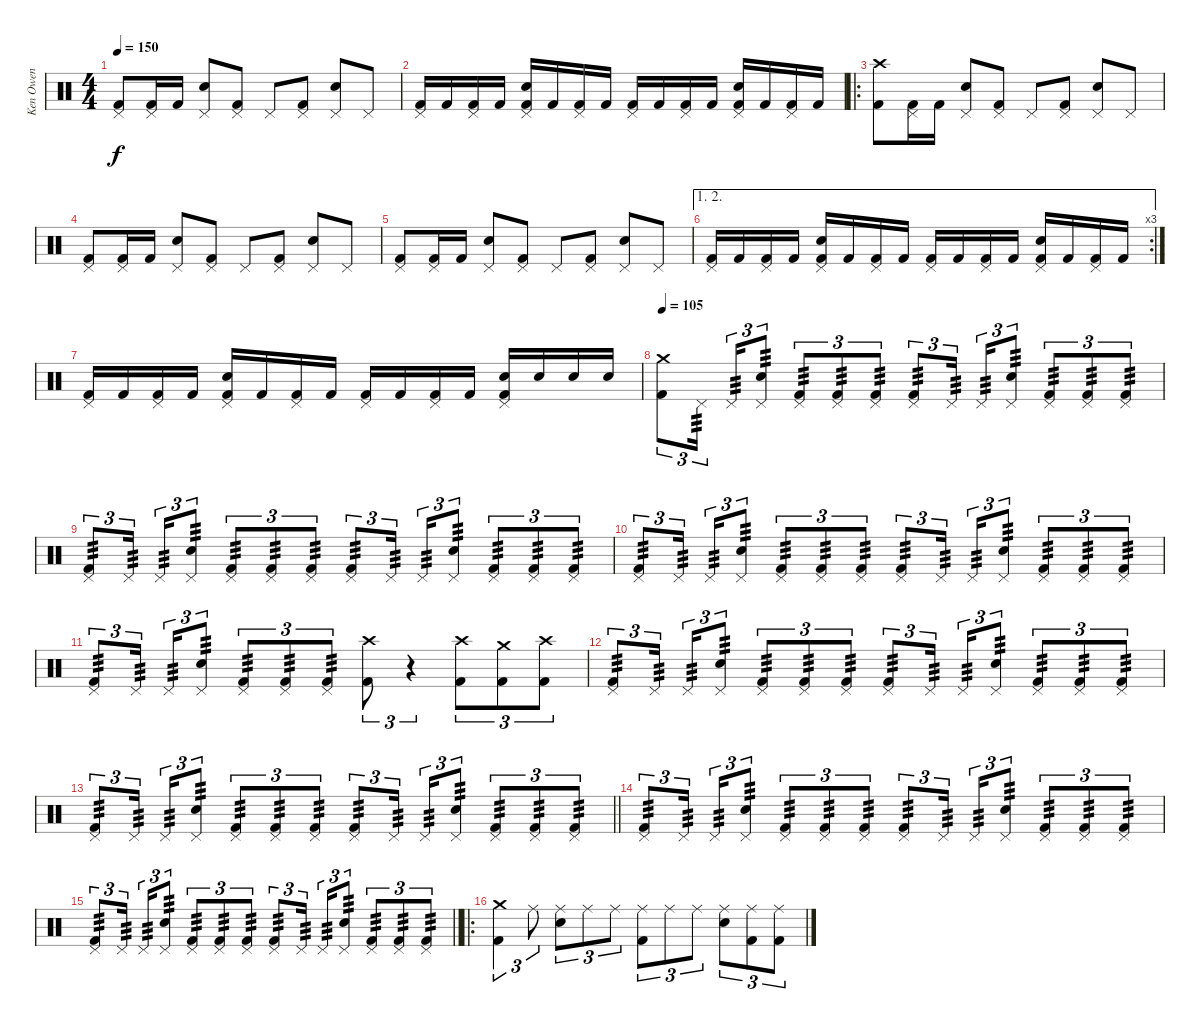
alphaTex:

\track ("Ken Owen" "Ken Owen") {instrument percussion}
\staff {score}
\articulation defaults
\ts (4 4)
\tempo 150
\clef neutral
\ks c
("Pedal Hi-Hat (hit)" "Kick (hit) 2").8{dy f} ("Pedal Hi-Hat (hit)" "Kick (hit) 2").16 "Kick (hit) 2".16 ("Pedal Hi-Hat (hit)" "Electric Snare (hit)").8 ("Pedal Hi-Hat (hit)" "Kick (hit) 2").8 "Pedal Hi-Hat (hit)".8 ("Pedal Hi-Hat (hit)" "Kick (hit) 2").8 ("Pedal Hi-Hat (hit)" "Electric Snare (hit)").8 "Pedal Hi-Hat (hit)".8 |
("Pedal Hi-Hat (hit)" "Kick (hit) 2").16 "Kick (hit) 2".16 ("Pedal Hi-Hat (hit)" "Kick (hit) 2").16 "Kick (hit) 2".16 ("Pedal Hi-Hat (hit)" "Electric Snare (hit)" "Kick (hit) 2").16 "Kick (hit) 2".16 ("Pedal Hi-Hat (hit)" "Kick (hit) 2").16 "Kick (hit) 2".16 ("Pedal Hi-Hat (hit)" "Kick (hit) 2").16 "Kick (hit) 2".16 ("Pedal Hi-Hat (hit)" "Kick (hit) 2").16 "Kick (hit) 2".16 ("Pedal Hi-Hat (hit)" "Electric Snare (hit)" "Kick (hit) 2").16 "Kick (hit) 2".16 ("Pedal Hi-Hat (hit)" "Kick (hit) 2").16 "Kick (hit) 2".16 |
\ro
("Crash high (hit)" "Kick (hit) 2").8 ("Pedal Hi-Hat (hit)" "Kick (hit) 2").16 "Kick (hit) 2".16 ("Pedal Hi-Hat (hit)" "Electric Snare (hit)").8 ("Pedal Hi-Hat (hit)" "Kick (hit) 2").8 "Pedal Hi-Hat (hit)".8 ("Pedal Hi-Hat (hit)" "Kick (hit) 2").8 ("Pedal Hi-Hat (hit)" "Electric Snare (hit)").8 "Pedal Hi-Hat (hit)".8 |
("Pedal Hi-Hat (hit)" "Kick (hit) 2").8 ("Pedal Hi-Hat (hit)" "Kick (hit) 2").16 "Kick (hit) 2".16 ("Pedal Hi-Hat (hit)" "Electric Snare (hit)").8 ("Pedal Hi-Hat (hit)" "Kick (hit) 2").8 "Pedal Hi-Hat (hit)".8 ("Pedal Hi-Hat (hit)" "Kick (hit) 2").8 ("Pedal Hi-Hat (hit)" "Electric Snare (hit)").8 "Pedal Hi-Hat (hit)".8 |
("Pedal Hi-Hat (hit)" "Kick (hit) 2").8 ("Pedal Hi-Hat (hit)" "Kick (hit) 2").16 "Kick (hit) 2".16 ("Pedal Hi-Hat (hit)" "Electric Snare (hit)").8 ("Pedal Hi-Hat (hit)" "Kick (hit) 2").8 "Pedal Hi-Hat (hit)".8 ("Pedal Hi-Hat (hit)" "Kick (hit) 2").8 ("Pedal Hi-Hat (hit)" "Electric Snare (hit)").8 "Pedal Hi-Hat (hit)".8 |
\ae (1 2)
\rc 3
("Pedal Hi-Hat (hit)" "Kick (hit) 2").16 "Kick (hit) 2".16 ("Pedal Hi-Hat (hit)" "Kick (hit) 2").16 "Kick (hit) 2".16 ("Pedal Hi-Hat (hit)" "Electric Snare (hit)" "Kick (hit) 2").16 "Kick (hit) 2".16 ("Pedal Hi-Hat (hit)" "Kick (hit) 2").16 "Kick (hit) 2".16 ("Pedal Hi-Hat (hit)" "Kick (hit) 2").16 "Kick (hit) 2".16 ("Pedal Hi-Hat (hit)" "Kick (hit) 2").16 "Kick (hit) 2".16 ("Pedal Hi-Hat (hit)" "Electric Snare (hit)" "Kick (hit) 2").16 "Kick (hit) 2".16 ("Pedal Hi-Hat (hit)" "Kick (hit) 2").16 "Kick (hit) 2".16 |
("Pedal Hi-Hat (hit)" "Kick (hit) 2").16 "Kick (hit) 2".16 ("Pedal Hi-Hat (hit)" "Kick (hit) 2").16 "Kick (hit) 2".16 ("Pedal Hi-Hat (hit)" "Electric Snare (hit)" "Kick (hit) 2").16 "Kick (hit) 2".16 ("Pedal Hi-Hat (hit)" "Kick (hit) 2").16 "Kick (hit) 2".16 ("Pedal Hi-Hat (hit)" "Kick (hit) 2").16 "Kick (hit) 2".16 ("Pedal Hi-Hat (hit)" "Kick (hit) 2").16 "Kick (hit) 2".16 ("Pedal Hi-Hat (hit)" "Electric Snare (hit)" "Kick (hit) 2").16 "Electric Snare (hit)".16 "Electric Snare (hit)".16 "Electric Snare (hit)".16 |
\tempo 105
("Crash medium (hit)" "Kick (hit) 2").8{tu (3 2)} "Pedal Hi-Hat (hit)".16{tu (3 2) tp 3 beam splitsecondary} "Pedal Hi-Hat (hit)".16{tu (3 2) tp 3} ("Pedal Hi-Hat (hit)" "Electric Snare (hit)").8{tu (3 2) tp 3} ("Pedal Hi-Hat (hit)" "Kick (hit) 2").8{tu (3 2) tp 3} ("Pedal Hi-Hat (hit)" "Kick (hit) 2").8{tu (3 2) tp 3} ("Pedal Hi-Hat (hit)" "Kick (hit) 2").8{tu (3 2) tp 3} ("Pedal Hi-Hat (hit)" "Kick (hit) 2").8{tu (3 2) tp 3} "Pedal Hi-Hat (hit)".16{tu (3 2) tp 3 beam splitsecondary} "Pedal Hi-Hat (hit)".16{tu (3 2) tp 3} ("Pedal Hi-Hat (hit)" "Electric Snare (hit)").8{tu (3 2) tp 3} ("Pedal Hi-Hat (hit)" "Kick (hit) 2").8{tu (3 2) tp 3} ("Pedal Hi-Hat (hit)" "Kick (hit) 2").8{tu (3 2) tp 3} ("Pedal Hi-Hat (hit)" "Kick (hit) 2").8{tu (3 2) tp 3} |
("Pedal Hi-Hat (hit)" "Kick (hit) 2").8{tu (3 2) tp 3} "Pedal Hi-Hat (hit)".16{tu (3 2) tp 3 beam splitsecondary} "Pedal Hi-Hat (hit)".16{tu (3 2) tp 3} ("Pedal Hi-Hat (hit)" "Electric Snare (hit)").8{tu (3 2) tp 3} ("Pedal Hi-Hat (hit)" "Kick (hit) 2").8{tu (3 2) tp 3} ("Pedal Hi-Hat (hit)" "Kick (hit) 2").8{tu (3 2) tp 3} ("Pedal Hi-Hat (hit)" "Kick (hit) 2").8{tu (3 2) tp 3} ("Pedal Hi-Hat (hit)" "Kick (hit) 2").8{tu (3 2) tp 3} "Pedal Hi-Hat (hit)".16{tu (3 2) tp 3 beam splitsecondary} "Pedal Hi-Hat (hit)".16{tu (3 2) tp 3} ("Pedal Hi-Hat (hit)" "Electric Snare (hit)").8{tu (3 2) tp 3} ("Pedal Hi-Hat (hit)" "Kick (hit) 2").8{tu (3 2) tp 3} ("Pedal Hi-Hat (hit)" "Kick (hit) 2").8{tu (3 2) tp 3} ("Pedal Hi-Hat (hit)" "Kick (hit) 2").8{tu (3 2) tp 3} |
("Pedal Hi-Hat (hit)" "Kick (hit) 2").8{tu (3 2) tp 3} "Pedal Hi-Hat (hit)".16{tu (3 2) tp 3 beam splitsecondary} "Pedal Hi-Hat (hit)".16{tu (3 2) tp 3} ("Pedal Hi-Hat (hit)" "Electric Snare (hit)").8{tu (3 2) tp 3} ("Pedal Hi-Hat (hit)" "Kick (hit) 2").8{tu (3 2) tp 3} ("Pedal Hi-Hat (hit)" "Kick (hit) 2").8{tu (3 2) tp 3} ("Pedal Hi-Hat (hit)" "Kick (hit) 2").8{tu (3 2) tp 3} ("Pedal Hi-Hat (hit)" "Kick (hit) 2").8{tu (3 2) tp 3} "Pedal Hi-Hat (hit)".16{tu (3 2) tp 3 beam splitsecondary} "Pedal Hi-Hat (hit)".16{tu (3 2) tp 3} ("Pedal Hi-Hat (hit)" "Electric Snare (hit)").8{tu (3 2) tp 3} ("Pedal Hi-Hat (hit)" "Kick (hit) 2").8{tu (3 2) tp 3} ("Pedal Hi-Hat (hit)" "Kick (hit) 2").8{tu (3 2) tp 3} ("Pedal Hi-Hat (hit)" "Kick (hit) 2").8{tu (3 2) tp 3} |
("Pedal Hi-Hat (hit)" "Kick (hit) 2").8{tu (3 2) tp 3} "Pedal Hi-Hat (hit)".16{tu (3 2) tp 3 beam splitsecondary} "Pedal Hi-Hat (hit)".16{tu (3 2) tp 3} ("Pedal Hi-Hat (hit)" "Electric Snare (hit)").8{tu (3 2) tp 3} ("Pedal Hi-Hat (hit)" "Kick (hit) 2").8{tu (3 2) tp 3} ("Pedal Hi-Hat (hit)" "Kick (hit) 2").8{tu (3 2) tp 3} ("Pedal Hi-Hat (hit)" "Kick (hit) 2").8{tu (3 2) tp 3} ("Crash high (hit)" "Kick (hit) 2").8{tu (3 2)} r.4{tu (3 2)} ("Crash high (hit)" "Kick (hit) 2").8{tu (3 2)} ("Crash medium (hit)" "Kick (hit) 2").8{tu (3 2)} ("Crash high (hit)" "Kick (hit) 2").8{tu (3 2)} |
("Pedal Hi-Hat (hit)" "Kick (hit) 2").8{tu (3 2) tp 3} "Pedal Hi-Hat (hit)".16{tu (3 2) tp 3 beam splitsecondary} "Pedal Hi-Hat (hit)".16{tu (3 2) tp 3} ("Pedal Hi-Hat (hit)" "Electric Snare (hit)").8{tu (3 2) tp 3} ("Pedal Hi-Hat (hit)" "Kick (hit) 2").8{tu (3 2) tp 3} ("Pedal Hi-Hat (hit)" "Kick (hit) 2").8{tu (3 2) tp 3} ("Pedal Hi-Hat (hit)" "Kick (hit) 2").8{tu (3 2) tp 3} ("Pedal Hi-Hat (hit)" "Kick (hit) 2").8{tu (3 2) tp 3} "Pedal Hi-Hat (hit)".16{tu (3 2) tp 3 beam splitsecondary} "Pedal Hi-Hat (hit)".16{tu (3 2) tp 3} ("Pedal Hi-Hat (hit)" "Electric Snare (hit)").8{tu (3 2) tp 3} ("Pedal Hi-Hat (hit)" "Kick (hit) 2").8{tu (3 2) tp 3} ("Pedal Hi-Hat (hit)" "Kick (hit) 2").8{tu (3 2) tp 3} ("Pedal Hi-Hat (hit)" "Kick (hit) 2").8{tu (3 2) tp 3} |
\barLineRight lightlight
("Pedal Hi-Hat (hit)" "Kick (hit) 2").8{tu (3 2) tp 3} "Pedal Hi-Hat (hit)".16{tu (3 2) tp 3 beam splitsecondary} "Pedal Hi-Hat (hit)".16{tu (3 2) tp 3} ("Pedal Hi-Hat (hit)" "Electric Snare (hit)").8{tu (3 2) tp 3} ("Pedal Hi-Hat (hit)" "Kick (hit) 2").8{tu (3 2) tp 3} ("Pedal Hi-Hat (hit)" "Kick (hit) 2").8{tu (3 2) tp 3} ("Pedal Hi-Hat (hit)" "Kick (hit) 2").8{tu (3 2) tp 3} ("Pedal Hi-Hat (hit)" "Kick (hit) 2").8{tu (3 2) tp 3} "Pedal Hi-Hat (hit)".16{tu (3 2) tp 3 beam splitsecondary} "Pedal Hi-Hat (hit)".16{tu (3 2) tp 3} ("Pedal Hi-Hat (hit)" "Electric Snare (hit)").8{tu (3 2) tp 3} ("Pedal Hi-Hat (hit)" "Kick (hit) 2").8{tu (3 2) tp 3} ("Pedal Hi-Hat (hit)" "Kick (hit) 2").8{tu (3 2) tp 3} ("Pedal Hi-Hat (hit)" "Kick (hit) 2").8{tu (3 2) tp 3} |
("Pedal Hi-Hat (hit)" "Kick (hit) 2").8{tu (3 2) tp 3} "Pedal Hi-Hat (hit)".16{tu (3 2) tp 3 beam splitsecondary} "Pedal Hi-Hat (hit)".16{tu (3 2) tp 3} ("Pedal Hi-Hat (hit)" "Electric Snare (hit)").8{tu (3 2) tp 3} ("Pedal Hi-Hat (hit)" "Kick (hit) 2").8{tu (3 2) tp 3} ("Pedal Hi-Hat (hit)" "Kick (hit) 2").8{tu (3 2) tp 3} ("Pedal Hi-Hat (hit)" "Kick (hit) 2").8{tu (3 2) tp 3} ("Pedal Hi-Hat (hit)" "Kick (hit) 2").8{tu (3 2) tp 3} "Pedal Hi-Hat (hit)".16{tu (3 2) tp 3 beam splitsecondary} "Pedal Hi-Hat (hit)".16{tu (3 2) tp 3} ("Pedal Hi-Hat (hit)" "Electric Snare (hit)").8{tu (3 2) tp 3} ("Pedal Hi-Hat (hit)" "Kick (hit) 2").8{tu (3 2) tp 3} ("Pedal Hi-Hat (hit)" "Kick (hit) 2").8{tu (3 2) tp 3} ("Pedal Hi-Hat (hit)" "Kick (hit) 2").8{tu (3 2) tp 3} |
\barLineRight lightlight
("Pedal Hi-Hat (hit)" "Kick (hit) 2").8{tu (3 2) tp 3} "Pedal Hi-Hat (hit)".16{tu (3 2) tp 3 beam splitsecondary} "Pedal Hi-Hat (hit)".16{tu (3 2) tp 3} ("Pedal Hi-Hat (hit)" "Electric Snare (hit)").8{tu (3 2) tp 3} ("Pedal Hi-Hat (hit)" "Kick (hit) 2").8{tu (3 2) tp 3} ("Pedal Hi-Hat (hit)" "Kick (hit) 2").8{tu (3 2) tp 3} ("Pedal Hi-Hat (hit)" "Kick (hit) 2").8{tu (3 2) tp 3} ("Pedal Hi-Hat (hit)" "Kick (hit) 2").8{tu (3 2) tp 3} "Pedal Hi-Hat (hit)".16{tu (3 2) tp 3 beam splitsecondary} "Pedal Hi-Hat (hit)".16{tu (3 2) tp 3} ("Pedal Hi-Hat (hit)" "Electric Snare (hit)").8{tu (3 2) tp 3} ("Pedal Hi-Hat (hit)" "Kick (hit) 2").8{tu (3 2) tp 3} ("Pedal Hi-Hat (hit)" "Kick (hit) 2").8{tu (3 2) tp 3} ("Pedal Hi-Hat (hit)" "Kick (hit) 2").8{tu (3 2) tp 3} |
\ro
("Crash medium (hit)" "Kick (hit) 2").4{tu (3 2)} "Ride (middle)".8{tu (3 2)} ("Ride (middle)" "Electric Snare (hit)").8{tu (3 2)} "Ride (middle)".8{tu (3 2)} "Ride (middle)".8{tu (3 2)} ("Ride (middle)" "Kick (hit) 2").8{tu (3 2)} "Ride (middle)".8{tu (3 2)} "Ride (middle)".8{tu (3 2)} ("Ride (middle)" "Electric Snare (hit)").8{tu (3 2)} ("Ride (middle)" "Kick (hit) 2").8{tu (3 2)} ("Ride (middle)" "Kick (hit) 2").8{tu (3 2)}
